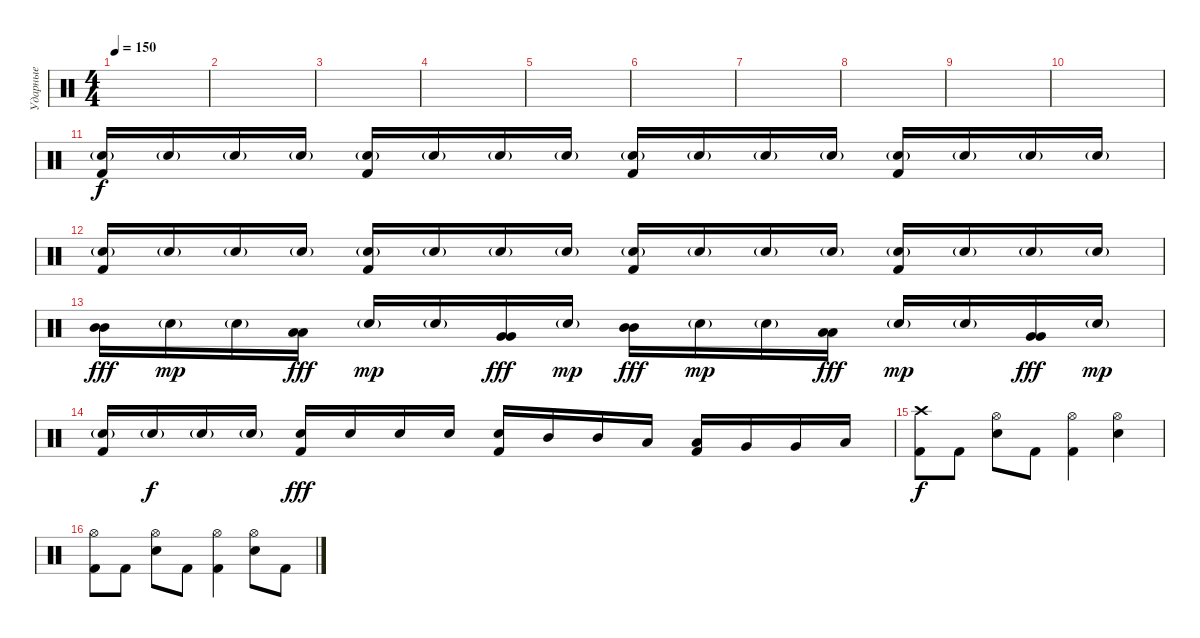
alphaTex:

\track ("Ударные" "Ударные") {instrument percussion}
\staff {score}
\articulation defaults
\ts (4 4)
\tempo 150
\clef neutral
\ks c
|
|
|
|
|
|
|
|
|
|
("Electric Snare (hit)"{g} "Kick (hit) 2").16 "Electric Snare (hit)"{g}.16 "Electric Snare (hit)"{g}.16 "Electric Snare (hit)"{g}.16 ("Electric Snare (hit)"{g} "Kick (hit) 2").16 "Electric Snare (hit)"{g}.16 "Electric Snare (hit)"{g}.16 "Electric Snare (hit)"{g}.16 ("Electric Snare (hit)"{g} "Kick (hit) 2").16 "Electric Snare (hit)"{g}.16 "Electric Snare (hit)"{g}.16 "Electric Snare (hit)"{g}.16 ("Electric Snare (hit)"{g} "Kick (hit) 2").16 "Electric Snare (hit)"{g}.16 "Electric Snare (hit)"{g}.16 "Electric Snare (hit)"{g}.16 |
("Electric Snare (hit)"{g} "Kick (hit) 2").16 "Electric Snare (hit)"{g}.16 "Electric Snare (hit)"{g}.16 "Electric Snare (hit)"{g}.16 ("Electric Snare (hit)"{g} "Kick (hit) 2").16 "Electric Snare (hit)"{g}.16 "Electric Snare (hit)"{g}.16 "Electric Snare (hit)"{g}.16 ("Electric Snare (hit)"{g} "Kick (hit) 2").16 "Electric Snare (hit)"{g}.16 "Electric Snare (hit)"{g}.16 "Electric Snare (hit)"{g}.16 ("Electric Snare (hit)"{g} "Kick (hit) 2").16 "Electric Snare (hit)"{g}.16 "Electric Snare (hit)"{g}.16 "Electric Snare (hit)"{g}.16 |
("Mid Tom (hit)" "Mid Tom (hit)").16{dy fff} "Electric Snare (hit)"{g}.16{dy mp} "Electric Snare (hit)"{g}.16 ("Low Tom (hit)" "Low Tom (hit)").16{dy fff} "Electric Snare (hit)"{g}.16{dy mp} "Electric Snare (hit)"{g}.16 ("Very Low Tom (hit)" "Very Low Tom (hit)").16{dy fff} "Electric Snare (hit)"{g}.16{dy mp} ("Mid Tom (hit)" "Mid Tom (hit)").16{dy fff} "Electric Snare (hit)"{g}.16{dy mp} "Electric Snare (hit)"{g}.16 ("Low Tom (hit)" "Low Tom (hit)").16{dy fff} "Electric Snare (hit)"{g}.16{dy mp} "Electric Snare (hit)"{g}.16 ("Very Low Tom (hit)" "Very Low Tom (hit)").16{dy fff} "Electric Snare (hit)"{g}.16{dy mp} |
("Electric Snare (hit)"{g} "Kick (hit) 2").16 "Electric Snare (hit)"{g}.16{dy f} "Electric Snare (hit)"{g}.16 "Electric Snare (hit)"{g}.16 ("Electric Snare (hit)" "Kick (hit) 2").16{dy fff} "Electric Snare (hit)".16 "Electric Snare (hit)".16 "Electric Snare (hit)".16 ("Electric Snare (hit)" "Kick (hit) 2").16 "Mid Tom (hit)".16 "Mid Tom (hit)".16 "Low Tom (hit)".16 ("Low Tom (hit)" "Kick (hit) 2").16 "Very Low Tom (hit)".16 "Very Low Tom (hit)".16 "Low Floor Tom (hit)".16 |
("Crash high (hit)" "Kick (hit) 2").8{dy f} "Kick (hit) 2".8 ("Hi-Hat (open)" "Electric Snare (hit)").8 "Kick (hit) 2".8 ("Hi-Hat (open)" "Kick (hit) 2").4 ("Hi-Hat (open)" "Electric Snare (hit)").4 |
("Hi-Hat (open)" "Kick (hit) 2").8 "Kick (hit) 2".8 ("Hi-Hat (open)" "Electric Snare (hit)").8 "Kick (hit) 2".8 ("Hi-Hat (open)" "Kick (hit) 2").4 ("Hi-Hat (open)" "Electric Snare (hit)").8 "Kick (hit) 2".8
